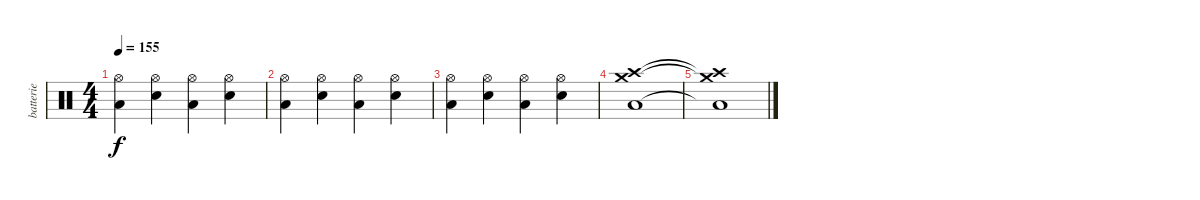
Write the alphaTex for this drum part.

\track ("batterie" "batterie") {instrument percussion}
\staff {score}
\articulation defaults
\ts (4 4)
\tempo 155
\clef neutral
\ks c
("Hi-Hat (open)" "Low Floor Tom (hit)").4{dy f} ("Hi-Hat (open)" "Electric Snare (hit)").4 ("Hi-Hat (open)" "Low Floor Tom (hit)").4 ("Hi-Hat (open)" "Electric Snare (hit)").4 |
("Hi-Hat (open)" "Low Floor Tom (hit)").4 ("Hi-Hat (open)" "Electric Snare (hit)").4 ("Hi-Hat (open)" "Low Floor Tom (hit)").4 ("Hi-Hat (open)" "Electric Snare (hit)").4 |
("Hi-Hat (open)" "Low Floor Tom (hit)").4 ("Hi-Hat (open)" "Electric Snare (hit)").4 ("Hi-Hat (open)" "Low Floor Tom (hit)").4 ("Hi-Hat (open)" "Electric Snare (hit)").4 |
("Crash medium (hit)" "Crash high (hit)" "Low Floor Tom (hit)").1 |
("Crash medium (hit)"{t} "Crash high (hit)"{t} "Low Floor Tom (hit)"{t}).1
